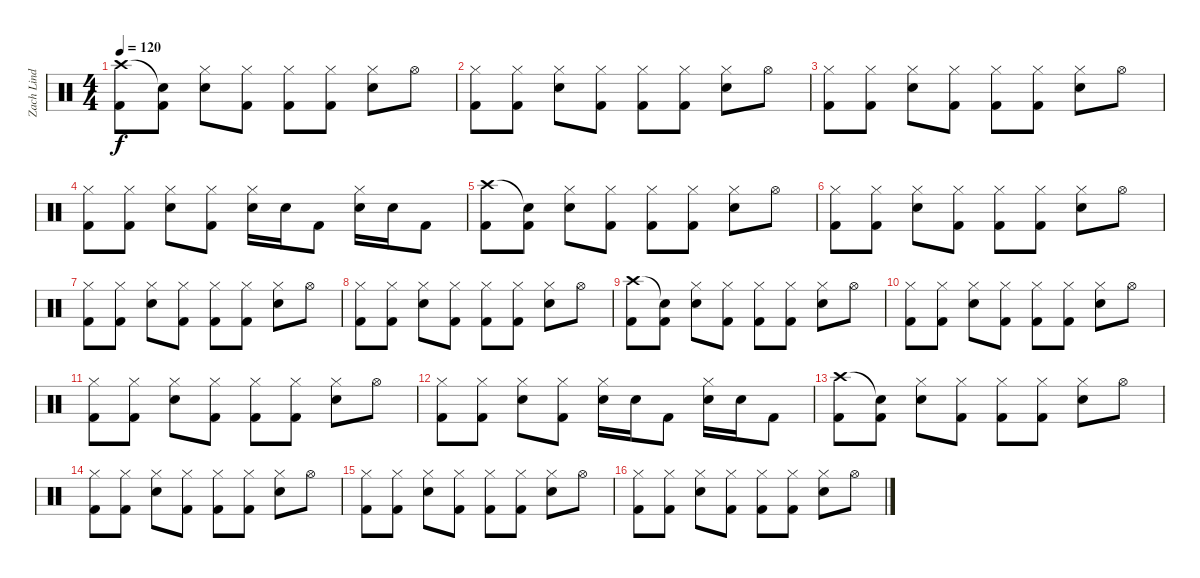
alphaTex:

\track ("Zach Lind (Drums)" "Zach Lind ") {instrument percussion}
\staff {score}
\articulation defaults
\ts (4 4)
\tempo 120
\clef neutral
\ks c
("Crash high (hit)" "Kick (hit) 2").8{dy f} ("Snare (hit)"{t} "Kick (hit) 2").8 ("Hi-Hat (closed)" "Electric Snare (hit)").8 ("Hi-Hat (closed)" "Kick (hit) 2").8 ("Hi-Hat (closed)" "Kick (hit) 2").8 ("Hi-Hat (closed)" "Kick (hit) 2").8 ("Hi-Hat (closed)" "Electric Snare (hit)").8 "Hi-Hat (open)".8 |
("Hi-Hat (closed)" "Kick (hit) 2").8 ("Hi-Hat (closed)" "Kick (hit) 2").8 ("Hi-Hat (closed)" "Electric Snare (hit)").8 ("Hi-Hat (closed)" "Kick (hit) 2").8 ("Hi-Hat (closed)" "Kick (hit) 2").8 ("Hi-Hat (closed)" "Kick (hit) 2").8 ("Hi-Hat (closed)" "Electric Snare (hit)").8 "Hi-Hat (open)".8 |
("Hi-Hat (closed)" "Kick (hit) 2").8 ("Hi-Hat (closed)" "Kick (hit) 2").8 ("Hi-Hat (closed)" "Electric Snare (hit)").8 ("Hi-Hat (closed)" "Kick (hit) 2").8 ("Hi-Hat (closed)" "Kick (hit) 2").8 ("Hi-Hat (closed)" "Kick (hit) 2").8 ("Hi-Hat (closed)" "Electric Snare (hit)").8 "Hi-Hat (open)".8 |
("Hi-Hat (closed)" "Kick (hit) 2").8 ("Hi-Hat (closed)" "Kick (hit) 2").8 ("Hi-Hat (closed)" "Electric Snare (hit)").8 ("Hi-Hat (closed)" "Kick (hit) 2").8 ("Hi-Hat (closed)" "Electric Snare (hit)").16 "Electric Snare (hit)".16 "Kick (hit) 2".8 ("Hi-Hat (closed)" "Electric Snare (hit)").16 "Electric Snare (hit)".16 "Kick (hit) 2".8 |
("Crash high (hit)" "Kick (hit) 2").8 ("Snare (hit)"{t} "Kick (hit) 2").8 ("Hi-Hat (closed)" "Electric Snare (hit)").8 ("Hi-Hat (closed)" "Kick (hit) 2").8 ("Hi-Hat (closed)" "Kick (hit) 2").8 ("Hi-Hat (closed)" "Kick (hit) 2").8 ("Hi-Hat (closed)" "Electric Snare (hit)").8 "Hi-Hat (open)".8 |
("Hi-Hat (closed)" "Kick (hit) 2").8 ("Hi-Hat (closed)" "Kick (hit) 2").8 ("Hi-Hat (closed)" "Electric Snare (hit)").8 ("Hi-Hat (closed)" "Kick (hit) 2").8 ("Hi-Hat (closed)" "Kick (hit) 2").8 ("Hi-Hat (closed)" "Kick (hit) 2").8 ("Hi-Hat (closed)" "Electric Snare (hit)").8 "Hi-Hat (open)".8 |
("Hi-Hat (closed)" "Kick (hit) 2").8 ("Hi-Hat (closed)" "Kick (hit) 2").8 ("Hi-Hat (closed)" "Electric Snare (hit)").8 ("Hi-Hat (closed)" "Kick (hit) 2").8 ("Hi-Hat (closed)" "Kick (hit) 2").8 ("Hi-Hat (closed)" "Kick (hit) 2").8 ("Hi-Hat (closed)" "Electric Snare (hit)").8 "Hi-Hat (open)".8 |
("Hi-Hat (closed)" "Kick (hit) 2").8 ("Hi-Hat (closed)" "Kick (hit) 2").8 ("Hi-Hat (closed)" "Electric Snare (hit)").8 ("Hi-Hat (closed)" "Kick (hit) 2").8 ("Hi-Hat (closed)" "Kick (hit) 2").8 ("Hi-Hat (closed)" "Kick (hit) 2").8 ("Hi-Hat (closed)" "Electric Snare (hit)").8 "Hi-Hat (open)".8 |
("Crash high (hit)" "Kick (hit) 2").8 ("Snare (hit)"{t} "Kick (hit) 2").8 ("Hi-Hat (closed)" "Electric Snare (hit)").8 ("Hi-Hat (closed)" "Kick (hit) 2").8 ("Hi-Hat (closed)" "Kick (hit) 2").8 ("Hi-Hat (closed)" "Kick (hit) 2").8 ("Hi-Hat (closed)" "Electric Snare (hit)").8 "Hi-Hat (open)".8 |
("Hi-Hat (closed)" "Kick (hit) 2").8 ("Hi-Hat (closed)" "Kick (hit) 2").8 ("Hi-Hat (closed)" "Electric Snare (hit)").8 ("Hi-Hat (closed)" "Kick (hit) 2").8 ("Hi-Hat (closed)" "Kick (hit) 2").8 ("Hi-Hat (closed)" "Kick (hit) 2").8 ("Hi-Hat (closed)" "Electric Snare (hit)").8 "Hi-Hat (open)".8 |
("Hi-Hat (closed)" "Kick (hit) 2").8 ("Hi-Hat (closed)" "Kick (hit) 2").8 ("Hi-Hat (closed)" "Electric Snare (hit)").8 ("Hi-Hat (closed)" "Kick (hit) 2").8 ("Hi-Hat (closed)" "Kick (hit) 2").8 ("Hi-Hat (closed)" "Kick (hit) 2").8 ("Hi-Hat (closed)" "Electric Snare (hit)").8 "Hi-Hat (open)".8 |
("Hi-Hat (closed)" "Kick (hit) 2").8 ("Hi-Hat (closed)" "Kick (hit) 2").8 ("Hi-Hat (closed)" "Electric Snare (hit)").8 ("Hi-Hat (closed)" "Kick (hit) 2").8 ("Hi-Hat (closed)" "Electric Snare (hit)").16 "Electric Snare (hit)".16 "Kick (hit) 2".8 ("Hi-Hat (closed)" "Electric Snare (hit)").16 "Electric Snare (hit)".16 "Kick (hit) 2".8 |
("Crash high (hit)" "Kick (hit) 2").8 ("Snare (hit)"{t} "Kick (hit) 2").8 ("Hi-Hat (closed)" "Electric Snare (hit)").8 ("Hi-Hat (closed)" "Kick (hit) 2").8 ("Hi-Hat (closed)" "Kick (hit) 2").8 ("Hi-Hat (closed)" "Kick (hit) 2").8 ("Hi-Hat (closed)" "Electric Snare (hit)").8 "Hi-Hat (open)".8 |
("Hi-Hat (closed)" "Kick (hit) 2").8 ("Hi-Hat (closed)" "Kick (hit) 2").8 ("Hi-Hat (closed)" "Electric Snare (hit)").8 ("Hi-Hat (closed)" "Kick (hit) 2").8 ("Hi-Hat (closed)" "Kick (hit) 2").8 ("Hi-Hat (closed)" "Kick (hit) 2").8 ("Hi-Hat (closed)" "Electric Snare (hit)").8 "Hi-Hat (open)".8 |
("Hi-Hat (closed)" "Kick (hit) 2").8 ("Hi-Hat (closed)" "Kick (hit) 2").8 ("Hi-Hat (closed)" "Electric Snare (hit)").8 ("Hi-Hat (closed)" "Kick (hit) 2").8 ("Hi-Hat (closed)" "Kick (hit) 2").8 ("Hi-Hat (closed)" "Kick (hit) 2").8 ("Hi-Hat (closed)" "Electric Snare (hit)").8 "Hi-Hat (open)".8 |
("Hi-Hat (closed)" "Kick (hit) 2").8 ("Hi-Hat (closed)" "Kick (hit) 2").8 ("Hi-Hat (closed)" "Electric Snare (hit)").8 ("Hi-Hat (closed)" "Kick (hit) 2").8 ("Hi-Hat (closed)" "Kick (hit) 2").8 ("Hi-Hat (closed)" "Kick (hit) 2").8 ("Hi-Hat (closed)" "Electric Snare (hit)").8 "Hi-Hat (open)".8
